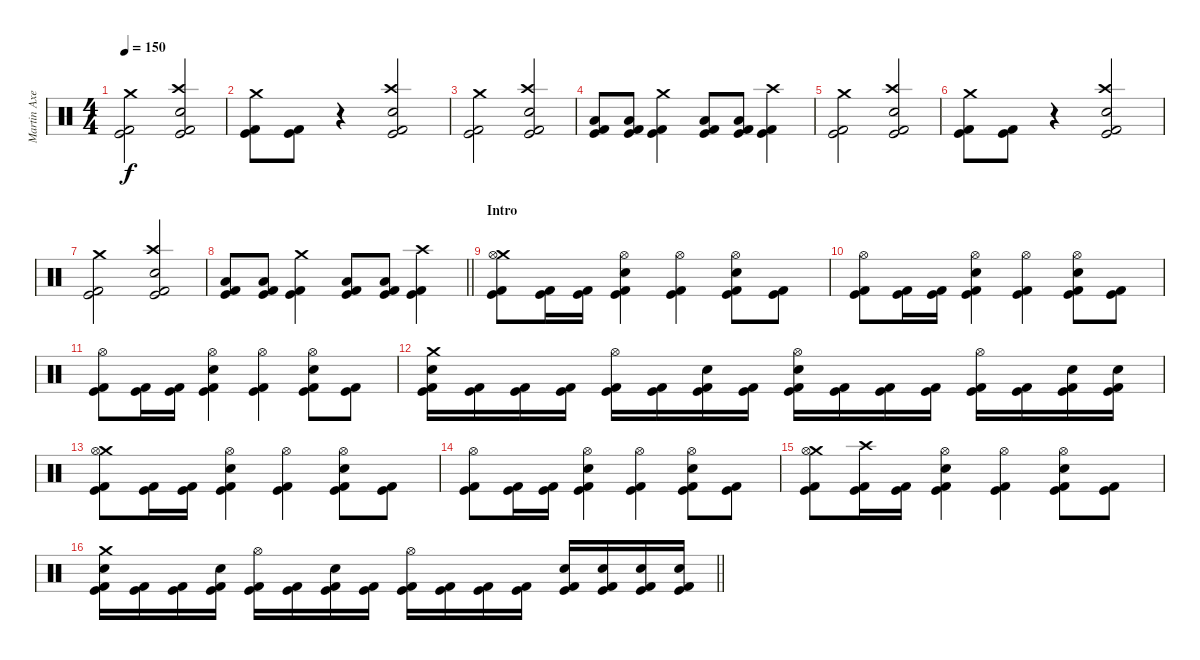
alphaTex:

\track ("Martin Axenrot" "Martin Axe") {instrument percussion}
\staff {score}
\articulation defaults
\ts (4 4)
\tempo 150
\clef neutral
\ks c
("Crash medium (hit)" "Kick (hit) 2" "Kick (hit)").2{dy f} ("Crash high (hit)" "Electric Snare (hit)" "Kick (hit) 2" "Kick (hit)").2 |
("Crash medium (hit)" "Kick (hit) 2" "Kick (hit)").8 ("Kick (hit) 2" "Kick (hit)").8 r.4 ("Crash high (hit)" "Electric Snare (hit)" "Kick (hit) 2" "Kick (hit)").2 |
("Crash medium (hit)" "Kick (hit) 2" "Kick (hit)").2 ("Crash high (hit)" "Electric Snare (hit)" "Kick (hit) 2" "Kick (hit)").2 |
("Low Floor Tom (hit)" "Kick (hit) 2" "Kick (hit)").8 ("Low Floor Tom (hit)" "Kick (hit) 2" "Kick (hit)").8 ("Crash medium (hit)" "Kick (hit) 2" "Kick (hit)").4 ("Low Floor Tom (hit)" "Kick (hit) 2" "Kick (hit)").8 ("Low Floor Tom (hit)" "Kick (hit) 2" "Kick (hit)").8 ("Crash high (hit)" "Kick (hit) 2" "Kick (hit)").4 |
("Crash medium (hit)" "Kick (hit) 2" "Kick (hit)").2 ("Crash high (hit)" "Electric Snare (hit)" "Kick (hit) 2" "Kick (hit)").2 |
("Crash medium (hit)" "Kick (hit) 2" "Kick (hit)").8 ("Kick (hit) 2" "Kick (hit)").8 r.4 ("Crash high (hit)" "Electric Snare (hit)" "Kick (hit) 2" "Kick (hit)").2 |
("Crash medium (hit)" "Kick (hit) 2" "Kick (hit)").2 ("Crash high (hit)" "Electric Snare (hit)" "Kick (hit) 2" "Kick (hit)").2 |
\barLineRight lightlight
("Low Floor Tom (hit)" "Kick (hit) 2" "Kick (hit)").8 ("Low Floor Tom (hit)" "Kick (hit) 2" "Kick (hit)").8 ("Crash medium (hit)" "Kick (hit) 2" "Kick (hit)").4 ("Low Floor Tom (hit)" "Kick (hit) 2" "Kick (hit)").8 ("Low Floor Tom (hit)" "Kick (hit) 2" "Kick (hit)").8 ("Crash high (hit)" "Kick (hit) 2" "Kick (hit)").4 |
\section ("" "Intro")
("Crash medium (hit)" "Hi-Hat (open)" "Kick (hit) 2" "Kick (hit)").8 ("Kick (hit) 2" "Kick (hit)").16 ("Kick (hit) 2" "Kick (hit)").16 ("Hi-Hat (open)" "Electric Snare (hit)" "Kick (hit) 2" "Kick (hit)").4 ("Hi-Hat (open)" "Kick (hit) 2" "Kick (hit)").4 ("Hi-Hat (open)" "Electric Snare (hit)" "Kick (hit) 2" "Kick (hit)").8 ("Kick (hit) 2" "Kick (hit)").8 |
("Hi-Hat (open)" "Kick (hit) 2" "Kick (hit)").8 ("Kick (hit) 2" "Kick (hit)").16 ("Kick (hit) 2" "Kick (hit)").16 ("Hi-Hat (open)" "Electric Snare (hit)" "Kick (hit) 2" "Kick (hit)").4 ("Hi-Hat (open)" "Kick (hit) 2" "Kick (hit)").4 ("Hi-Hat (open)" "Electric Snare (hit)" "Kick (hit) 2" "Kick (hit)").8 ("Kick (hit) 2" "Kick (hit)").8 |
("Hi-Hat (open)" "Kick (hit) 2" "Kick (hit)").8 ("Kick (hit) 2" "Kick (hit)").16 ("Kick (hit) 2" "Kick (hit)").16 ("Hi-Hat (open)" "Electric Snare (hit)" "Kick (hit) 2" "Kick (hit)").4 ("Hi-Hat (open)" "Kick (hit) 2" "Kick (hit)").4 ("Hi-Hat (open)" "Electric Snare (hit)" "Kick (hit) 2" "Kick (hit)").8 ("Kick (hit) 2" "Kick (hit)").8 |
("Crash medium (hit)" "Electric Snare (hit)" "Kick (hit) 2" "Kick (hit)").16 ("Kick (hit) 2" "Kick (hit)").16 ("Kick (hit) 2" "Kick (hit)").16 ("Kick (hit) 2" "Kick (hit)").16 ("Hi-Hat (open)" "Kick (hit) 2" "Kick (hit)").16 ("Kick (hit) 2" "Kick (hit)").16 ("Electric Snare (hit)" "Kick (hit) 2" "Kick (hit)").16 ("Kick (hit) 2" "Kick (hit)").16 ("Hi-Hat (open)" "Electric Snare (hit)" "Kick (hit) 2" "Kick (hit)").16 ("Kick (hit) 2" "Kick (hit)").16 ("Kick (hit) 2" "Kick (hit)").16 ("Kick (hit) 2" "Kick (hit)").16 ("Hi-Hat (open)" "Kick (hit) 2" "Kick (hit)").16 ("Kick (hit) 2" "Kick (hit)").16 ("Electric Snare (hit)" "Kick (hit) 2" "Kick (hit)").16 ("Electric Snare (hit)" "Kick (hit) 2" "Kick (hit)").16 |
("Crash medium (hit)" "Hi-Hat (open)" "Kick (hit) 2" "Kick (hit)").8 ("Kick (hit) 2" "Kick (hit)").16 ("Kick (hit) 2" "Kick (hit)").16 ("Hi-Hat (open)" "Electric Snare (hit)" "Kick (hit) 2" "Kick (hit)").4 ("Hi-Hat (open)" "Kick (hit) 2" "Kick (hit)").4 ("Hi-Hat (open)" "Electric Snare (hit)" "Kick (hit) 2" "Kick (hit)").8 ("Kick (hit) 2" "Kick (hit)").8 |
("Hi-Hat (open)" "Kick (hit) 2" "Kick (hit)").8 ("Kick (hit) 2" "Kick (hit)").16 ("Kick (hit) 2" "Kick (hit)").16 ("Hi-Hat (open)" "Electric Snare (hit)" "Kick (hit) 2" "Kick (hit)").4 ("Hi-Hat (open)" "Kick (hit) 2" "Kick (hit)").4 ("Hi-Hat (open)" "Electric Snare (hit)" "Kick (hit) 2" "Kick (hit)").8 ("Kick (hit) 2" "Kick (hit)").8 |
("Crash medium (hit)" "Hi-Hat (open)" "Kick (hit) 2" "Kick (hit)").8 ("Crash high (hit)" "Kick (hit) 2" "Kick (hit)").16 ("Kick (hit) 2" "Kick (hit)").16 ("Hi-Hat (open)" "Electric Snare (hit)" "Kick (hit) 2" "Kick (hit)").4 ("Hi-Hat (open)" "Kick (hit) 2" "Kick (hit)").4 ("Hi-Hat (open)" "Electric Snare (hit)" "Kick (hit) 2" "Kick (hit)").8 ("Kick (hit) 2" "Kick (hit)").8 |
\barLineRight lightlight
("Crash medium (hit)" "Electric Snare (hit)" "Kick (hit) 2" "Kick (hit)").16 ("Kick (hit) 2" "Kick (hit)").16 ("Kick (hit) 2" "Kick (hit)").16 ("Electric Snare (hit)" "Kick (hit) 2" "Kick (hit)").16 ("Hi-Hat (open)" "Kick (hit) 2" "Kick (hit)").16 ("Kick (hit) 2" "Kick (hit)").16 ("Electric Snare (hit)" "Kick (hit) 2" "Kick (hit)").16 ("Kick (hit) 2" "Kick (hit)").16 ("Hi-Hat (open)" "Kick (hit) 2" "Kick (hit)").16 ("Kick (hit) 2" "Kick (hit)").16 ("Kick (hit) 2" "Kick (hit)").16 ("Kick (hit) 2" "Kick (hit)").16 ("Electric Snare (hit)" "Kick (hit) 2" "Kick (hit)").16 ("Electric Snare (hit)" "Kick (hit) 2" "Kick (hit)").16 ("Electric Snare (hit)" "Kick (hit) 2" "Kick (hit)").16 ("Electric Snare (hit)" "Kick (hit) 2" "Kick (hit)").16
